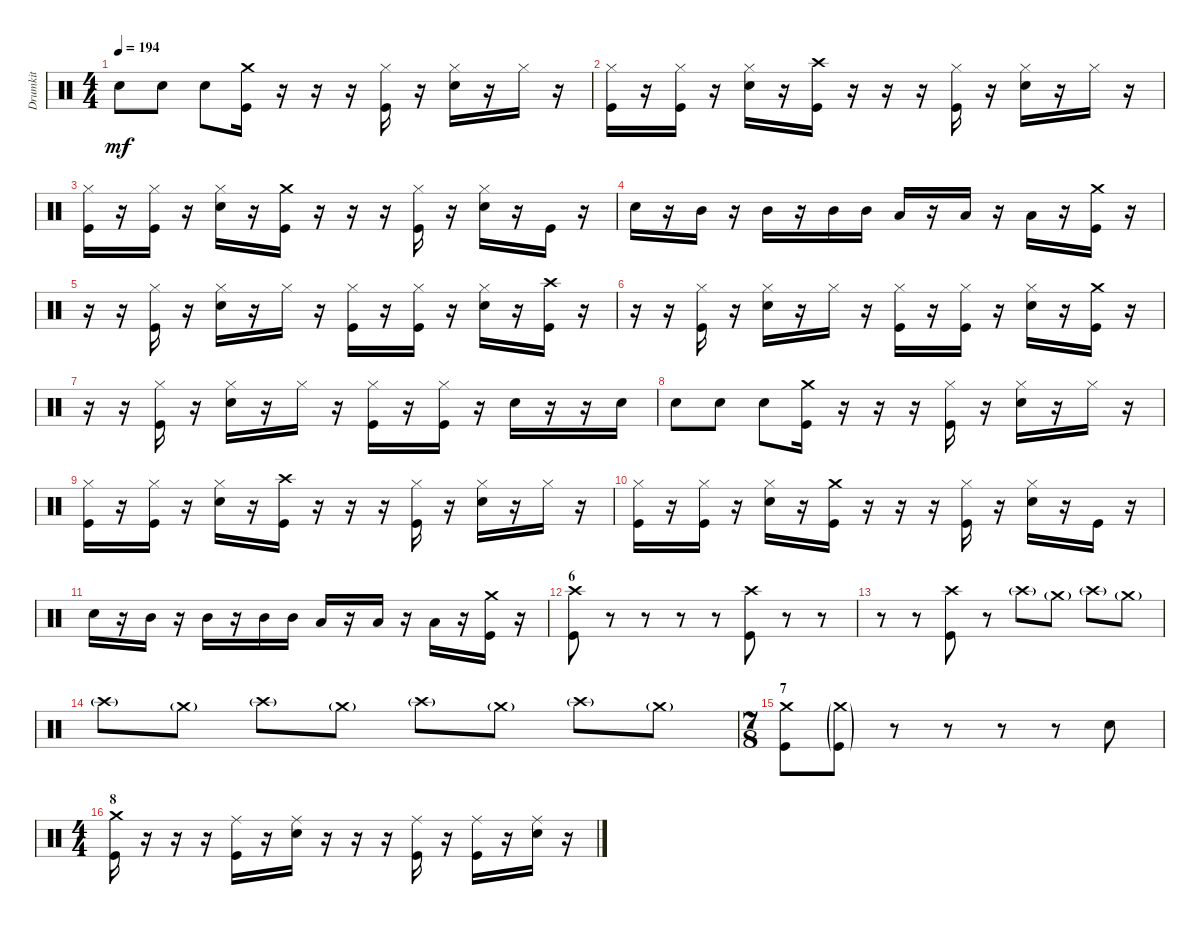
\track ("Drumkit" "Drumkit") {instrument percussion}
\staff {score}
\articulation defaults
\ts (4 4)
\tempo 194
\clef neutral
\ks c "Snare (hit) 2".8{dy mf} "Snare (hit) 2".8 "Snare (hit) 2".8
("Kick (hit)" "Crash medium (hit)").16 r.16 r.16 r.16 ("Kick (hit)" "Hi-Hat (closed)").16 r.16 ("Snare (hit) 2" "Hi-Hat (closed)").16 r.16 "Hi-Hat (closed)".16 r.16 |
("Kick (hit)" "Hi-Hat (closed)").16 r.16 ("Kick (hit)" "Hi-Hat (closed)").16 r.16 ("Snare (hit) 2" "Hi-Hat (closed)").16 r.16 ("Kick (hit)" "Crash high (hit)").16 r.16 r.16 r.16 ("Kick (hit)" "Hi-Hat (closed)").16 r.16 ("Snare (hit) 2" "Hi-Hat (closed)").16 r.16 "Hi-Hat (closed)".16 r.16 |
("Kick (hit)" "Hi-Hat (closed)").16 r.16 ("Kick (hit)" "Hi-Hat (closed)").16 r.16 ("Snare (hit) 2" "Hi-Hat (closed)").16 r.16 ("Kick (hit)" "Crash medium (hit)").16 r.16 r.16 r.16 ("Kick (hit)" "Hi-Hat (closed)").16 r.16 ("Snare (hit) 2" "Hi-Hat (closed)").16 r.16 "Kick (hit)".16 r.16 |
"Snare (hit) 2".16 r.16 "Mid Tom (hit)".16 r.16 "Mid Tom (hit)".16 r.16 "Mid Tom (hit)".16 "Mid Tom (hit)".16 "Low Tom (hit)".16 r.16 "Low Tom (hit)".16 r.16 "Low Tom (hit)".16 r.16 ("Kick (hit)" "Crash medium (hit)").16 r.16 |
r.16 r.16 ("Kick (hit)" "Hi-Hat (closed)").16 r.16 ("Snare (hit) 2" "Hi-Hat (closed)").16 r.16 "Hi-Hat (closed)".16 r.16 ("Kick (hit)" "Hi-Hat (closed)").16 r.16 ("Kick (hit)" "Hi-Hat (closed)").16 r.16 ("Snare (hit) 2" "Hi-Hat (closed)").16 r.16 ("Kick (hit)" "Crash high (hit)").16 r.16 |
r.16 r.16 ("Kick (hit)" "Hi-Hat (closed)").16 r.16 ("Snare (hit) 2" "Hi-Hat (closed)").16 r.16 "Hi-Hat (closed)".16 r.16 ("Kick (hit)" "Hi-Hat (closed)").16 r.16 ("Kick (hit)" "Hi-Hat (closed)").16 r.16 ("Snare (hit) 2" "Hi-Hat (closed)").16 r.16 ("Kick (hit)" "Crash medium (hit)").16 r.16 |
r.16 r.16 ("Kick (hit)" "Hi-Hat (closed)").16 r.16 ("Snare (hit) 2" "Hi-Hat (closed)").16 r.16 "Hi-Hat (closed)".16 r.16 ("Kick (hit)" "Hi-Hat (closed)").16 r.16 ("Kick (hit)" "Hi-Hat (closed)").16 r.16 "Snare (hit) 2".16 r.16 r.16 "Snare (hit) 2".16 |
"Snare (hit) 2".8 "Snare (hit) 2".8 "Snare (hit) 2".8 ("Kick (hit)" "Crash medium (hit)").16 r.16 r.16 r.16 ("Kick (hit)" "Hi-Hat (closed)").16 r.16 ("Snare (hit) 2" "Hi-Hat (closed)").16 r.16 "Hi-Hat (closed)".16 r.16 |
("Kick (hit)" "Hi-Hat (closed)").16 r.16 ("Kick (hit)" "Hi-Hat (closed)").16 r.16 ("Snare (hit) 2" "Hi-Hat (closed)").16 r.16 ("Kick (hit)" "Crash high (hit)").16 r.16 r.16 r.16 ("Kick (hit)" "Hi-Hat (closed)").16 r.16 ("Snare (hit) 2" "Hi-Hat (closed)").16 r.16 "Hi-Hat (closed)".16 r.16 |
("Kick (hit)" "Hi-Hat (closed)").16 r.16 ("Kick (hit)" "Hi-Hat (closed)").16 r.16 ("Snare (hit) 2" "Hi-Hat (closed)").16 r.16 ("Kick (hit)" "Crash medium (hit)").16 r.16 r.16 r.16 ("Kick (hit)" "Hi-Hat (closed)").16 r.16 ("Snare (hit) 2" "Hi-Hat (closed)").16 r.16 "Kick (hit)".16 r.16 |
"Snare (hit) 2".16 r.16 "Mid Tom (hit)".16 r.16 "Mid Tom (hit)".16 r.16 "Mid Tom (hit)".16 "Mid Tom (hit)".16 "Low Tom (hit)".16 r.16 "Low Tom (hit)".16 r.16 "Low Tom (hit)".16 r.16 ("Kick (hit)" "Crash medium (hit)").16 r.16 |
\section ("" "6")
("Kick (hit)" "Crash high (hit)").8 r.8 r.8 r.8 r.8 ("Kick (hit)" "Crash high (hit)").8 r.8 r.8 |
r.8 r.8 ("Kick (hit)" "Crash high (hit)").8 r.8 "Crash high (hit)"{g}.8 "Crash medium (hit)"{g}.8 "Crash high (hit)"{g}.8 "Crash medium (hit)"{g}.8 |
"Crash high (hit)"{g}.8 "Crash medium (hit)"{g}.8 "Crash high (hit)"{g}.8 "Crash medium (hit)"{g}.8 "Crash high (hit)"{g}.8 "Crash medium (hit)"{g}.8 "Crash high (hit)"{g}.8 "Crash medium (hit)"{g}.8 |
\ts (7 8)
\section ("" "7")
("Kick (hit)" "Crash medium (hit)").8 ("Crash medium (hit)"{g} "Kick (hit)"{g}).8 r.8 r.8 r.8 r.8 "Snare (hit) 2".8 |
\ts (4 4)
\section ("" "8")
("Kick (hit)" "Crash medium (hit)").16 r.16 r.16 r.16 ("Kick (hit)" "Ride (middle)").16 r.16 ("Snare (hit) 2" "Ride (middle)").16 r.16 r.16 r.16 ("Kick (hit)" "Ride (middle)").16 r.16 ("Kick (hit)" "Ride (middle)").16 r.16 ("Snare (hit) 2" "Ride (middle)").16 r.16
